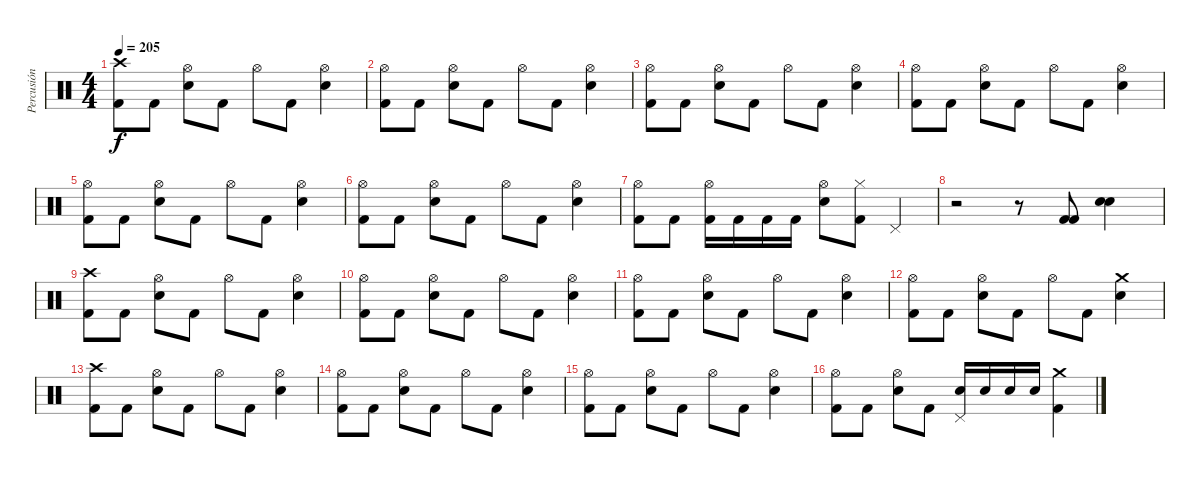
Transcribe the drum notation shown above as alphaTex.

\track ("Percusión" "Percusión") {instrument percussion}
\staff {score}
\articulation defaults
\ts (4 4)
\tempo 205
\clef neutral
\ks c
("Crash high (hit)" "Kick (hit) 2").8{dy f} "Kick (hit) 2".8 ("Hi-Hat (open)" "Snare (hit) 2").8 "Kick (hit) 2".8 "Hi-Hat (open)".8 "Kick (hit) 2".8 ("Snare (hit) 2" "Hi-Hat (open)").4 |
("Hi-Hat (open)" "Kick (hit) 2").8 "Kick (hit) 2".8 ("Hi-Hat (open)" "Snare (hit) 2").8 "Kick (hit) 2".8 "Hi-Hat (open)".8 "Kick (hit) 2".8 ("Snare (hit) 2" "Hi-Hat (open)").4 |
("Hi-Hat (open)" "Kick (hit) 2").8 "Kick (hit) 2".8 ("Hi-Hat (open)" "Snare (hit) 2").8 "Kick (hit) 2".8 "Hi-Hat (open)".8 "Kick (hit) 2".8 ("Snare (hit) 2" "Hi-Hat (open)").4 |
("Hi-Hat (open)" "Kick (hit) 2").8 "Kick (hit) 2".8 ("Hi-Hat (open)" "Snare (hit) 2").8 "Kick (hit) 2".8 "Hi-Hat (open)".8 "Kick (hit) 2".8 ("Snare (hit) 2" "Hi-Hat (open)").4 |
("Hi-Hat (open)" "Kick (hit) 2").8 "Kick (hit) 2".8 ("Hi-Hat (open)" "Snare (hit) 2").8 "Kick (hit) 2".8 "Hi-Hat (open)".8 "Kick (hit) 2".8 ("Snare (hit) 2" "Hi-Hat (open)").4 |
("Hi-Hat (open)" "Kick (hit) 2").8 "Kick (hit) 2".8 ("Hi-Hat (open)" "Snare (hit) 2").8 "Kick (hit) 2".8 "Hi-Hat (open)".8 "Kick (hit) 2".8 ("Snare (hit) 2" "Hi-Hat (open)").4 |
("Hi-Hat (open)" "Kick (hit) 2").8 "Kick (hit) 2".8 ("Hi-Hat (open)" "Kick (hit) 2").16 "Kick (hit) 2".16 "Kick (hit) 2".16 "Kick (hit) 2".16 ("Hi-Hat (open)" "Snare (hit) 2").8 ("Hi-Hat (closed)" "Kick (hit) 2").8 "Pedal Hi-Hat (hit)".4 |
r.2 r.8 ("Kick (hit) 2" "Kick (hit) 2").8 ("Snare (hit) 2" "Snare (hit) 2").4 |
("Crash high (hit)" "Kick (hit) 2").8 "Kick (hit) 2".8 ("Hi-Hat (open)" "Snare (hit) 2").8 "Kick (hit) 2".8 "Hi-Hat (open)".8 "Kick (hit) 2".8 ("Snare (hit) 2" "Hi-Hat (open)").4 |
("Hi-Hat (open)" "Kick (hit) 2").8 "Kick (hit) 2".8 ("Hi-Hat (open)" "Snare (hit) 2").8 "Kick (hit) 2".8 "Hi-Hat (open)".8 "Kick (hit) 2".8 ("Snare (hit) 2" "Hi-Hat (open)").4 |
("Hi-Hat (open)" "Kick (hit) 2").8 "Kick (hit) 2".8 ("Hi-Hat (open)" "Snare (hit) 2").8 "Kick (hit) 2".8 "Hi-Hat (open)".8 "Kick (hit) 2".8 ("Snare (hit) 2" "Hi-Hat (open)").4 |
("Hi-Hat (open)" "Kick (hit) 2").8 "Kick (hit) 2".8 ("Hi-Hat (open)" "Snare (hit) 2").8 "Kick (hit) 2".8 "Hi-Hat (open)".8 "Kick (hit) 2".8 ("Snare (hit) 2" "Crash medium (hit)").4 |
("Crash high (hit)" "Kick (hit) 2").8 "Kick (hit) 2".8 ("Hi-Hat (open)" "Snare (hit) 2").8 "Kick (hit) 2".8 "Hi-Hat (open)".8 "Kick (hit) 2".8 ("Snare (hit) 2" "Hi-Hat (open)").4 |
("Hi-Hat (open)" "Kick (hit) 2").8 "Kick (hit) 2".8 ("Hi-Hat (open)" "Snare (hit) 2").8 "Kick (hit) 2".8 "Hi-Hat (open)".8 "Kick (hit) 2".8 ("Snare (hit) 2" "Hi-Hat (open)").4 |
("Hi-Hat (open)" "Kick (hit) 2").8 "Kick (hit) 2".8 ("Hi-Hat (open)" "Snare (hit) 2").8 "Kick (hit) 2".8 "Hi-Hat (open)".8 "Kick (hit) 2".8 ("Snare (hit) 2" "Hi-Hat (open)").4 |
("Hi-Hat (open)" "Kick (hit) 2").8 "Kick (hit) 2".8 ("Hi-Hat (open)" "Snare (hit) 2").8 "Kick (hit) 2".8 ("Pedal Hi-Hat (hit)" "Snare (hit) 2").16 "Snare (hit) 2".16 "Snare (hit) 2".16 "Snare (hit) 2".16 ("Crash medium (hit)" "Kick (hit) 2").4
